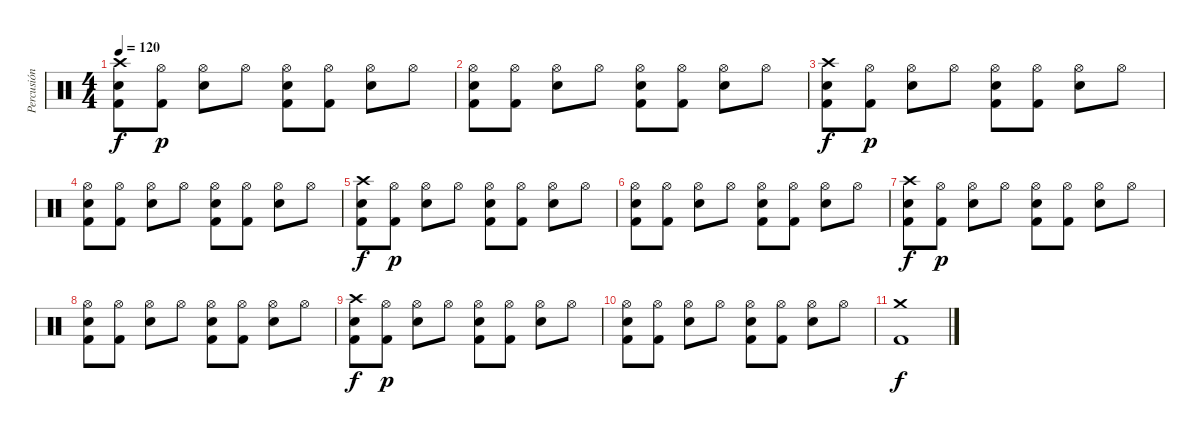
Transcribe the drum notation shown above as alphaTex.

\track ("Percusión" "Percusión") {instrument percussion}
\staff {score}
\articulation defaults
\ts (4 4)
\tempo 120
\clef neutral
\ks c
("Snare (hit) 2" "Kick (hit) 2" "Crash high (hit)").8{dy f} ("Hi-Hat (open)" "Kick (hit) 2").8{dy p} ("Snare (hit) 2" "Hi-Hat (open)").8 "Hi-Hat (open)".8 ("Snare (hit) 2" "Hi-Hat (open)" "Kick (hit) 2").8 ("Hi-Hat (open)" "Kick (hit) 2").8 ("Snare (hit) 2" "Hi-Hat (open)").8 "Hi-Hat (open)".8 |
("Snare (hit) 2" "Hi-Hat (open)" "Kick (hit) 2").8 ("Hi-Hat (open)" "Kick (hit) 2").8 ("Snare (hit) 2" "Hi-Hat (open)").8 "Hi-Hat (open)".8 ("Snare (hit) 2" "Hi-Hat (open)" "Kick (hit) 2").8 ("Hi-Hat (open)" "Kick (hit) 2").8 ("Snare (hit) 2" "Hi-Hat (open)").8 "Hi-Hat (open)".8 |
("Snare (hit) 2" "Kick (hit) 2" "Crash high (hit)").8{dy f} ("Hi-Hat (open)" "Kick (hit) 2").8{dy p} ("Snare (hit) 2" "Hi-Hat (open)").8 "Hi-Hat (open)".8 ("Snare (hit) 2" "Hi-Hat (open)" "Kick (hit) 2").8 ("Hi-Hat (open)" "Kick (hit) 2").8 ("Snare (hit) 2" "Hi-Hat (open)").8 "Hi-Hat (open)".8 |
("Snare (hit) 2" "Hi-Hat (open)" "Kick (hit) 2").8 ("Hi-Hat (open)" "Kick (hit) 2").8 ("Snare (hit) 2" "Hi-Hat (open)").8 "Hi-Hat (open)".8 ("Snare (hit) 2" "Hi-Hat (open)" "Kick (hit) 2").8 ("Hi-Hat (open)" "Kick (hit) 2").8 ("Snare (hit) 2" "Hi-Hat (open)").8 "Hi-Hat (open)".8 |
("Snare (hit) 2" "Kick (hit) 2" "Crash high (hit)").8{dy f} ("Hi-Hat (open)" "Kick (hit) 2").8{dy p} ("Snare (hit) 2" "Hi-Hat (open)").8 "Hi-Hat (open)".8 ("Snare (hit) 2" "Hi-Hat (open)" "Kick (hit) 2").8 ("Hi-Hat (open)" "Kick (hit) 2").8 ("Snare (hit) 2" "Hi-Hat (open)").8 "Hi-Hat (open)".8 |
("Snare (hit) 2" "Hi-Hat (open)" "Kick (hit) 2").8 ("Hi-Hat (open)" "Kick (hit) 2").8 ("Snare (hit) 2" "Hi-Hat (open)").8 "Hi-Hat (open)".8 ("Snare (hit) 2" "Hi-Hat (open)" "Kick (hit) 2").8 ("Hi-Hat (open)" "Kick (hit) 2").8 ("Snare (hit) 2" "Hi-Hat (open)").8 "Hi-Hat (open)".8 |
("Snare (hit) 2" "Kick (hit) 2" "Crash high (hit)").8{dy f} ("Hi-Hat (open)" "Kick (hit) 2").8{dy p} ("Snare (hit) 2" "Hi-Hat (open)").8 "Hi-Hat (open)".8 ("Snare (hit) 2" "Hi-Hat (open)" "Kick (hit) 2").8 ("Hi-Hat (open)" "Kick (hit) 2").8 ("Snare (hit) 2" "Hi-Hat (open)").8 "Hi-Hat (open)".8 |
("Snare (hit) 2" "Hi-Hat (open)" "Kick (hit) 2").8 ("Hi-Hat (open)" "Kick (hit) 2").8 ("Snare (hit) 2" "Hi-Hat (open)").8 "Hi-Hat (open)".8 ("Snare (hit) 2" "Hi-Hat (open)" "Kick (hit) 2").8 ("Hi-Hat (open)" "Kick (hit) 2").8 ("Snare (hit) 2" "Hi-Hat (open)").8 "Hi-Hat (open)".8 |
("Snare (hit) 2" "Kick (hit) 2" "Crash high (hit)").8{dy f} ("Hi-Hat (open)" "Kick (hit) 2").8{dy p} ("Snare (hit) 2" "Hi-Hat (open)").8 "Hi-Hat (open)".8 ("Snare (hit) 2" "Hi-Hat (open)" "Kick (hit) 2").8 ("Hi-Hat (open)" "Kick (hit) 2").8 ("Snare (hit) 2" "Hi-Hat (open)").8 "Hi-Hat (open)".8 |
("Snare (hit) 2" "Hi-Hat (open)" "Kick (hit) 2").8 ("Hi-Hat (open)" "Kick (hit) 2").8 ("Snare (hit) 2" "Hi-Hat (open)").8 "Hi-Hat (open)".8 ("Snare (hit) 2" "Hi-Hat (open)" "Kick (hit) 2").8 ("Hi-Hat (open)" "Kick (hit) 2").8 ("Snare (hit) 2" "Hi-Hat (open)").8 "Hi-Hat (open)".8 |
("Kick (hit) 2" "Crash medium (hit)").1{dy f}
